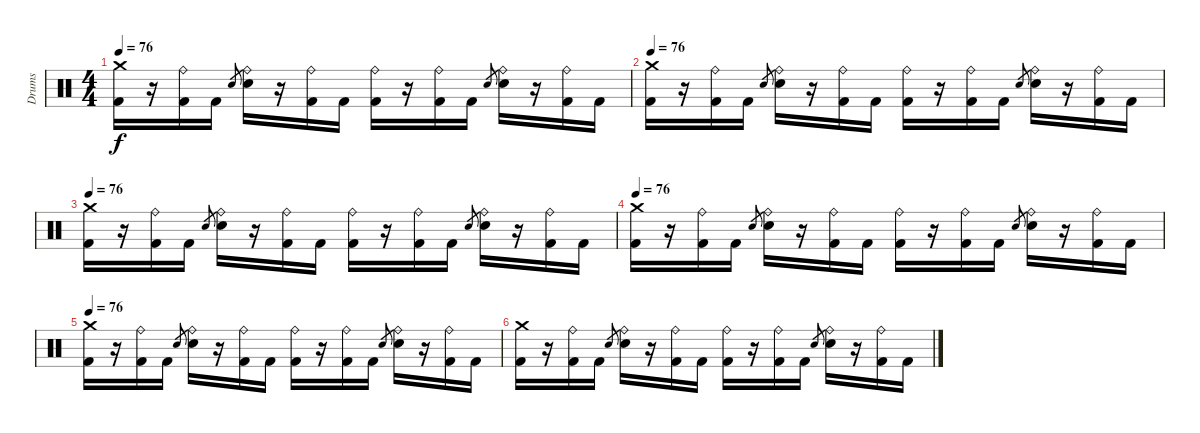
\track ("Drums" "Drums") {instrument percussion}
\staff {score}
\articulation defaults
\ts (4 4)
\tempo 76
\clef neutral
\ks c
("Crash medium (hit)" "Kick (hit) 2").16{dy f} r.16 ("Ride (bell)" "Kick (hit) 2").16 "Kick (hit) 2".16 "Electric Snare (hit)".8{gr} ("Ride (bell)" "Electric Snare (hit)").16 r.16 ("Ride (bell)" "Kick (hit) 2").16 "Kick (hit) 2".16 ("Ride (bell)" "Kick (hit) 2").16 r.16 ("Ride (bell)" "Kick (hit) 2").16 "Kick (hit) 2".16 "Electric Snare (hit)".8{gr} ("Ride (bell)" "Electric Snare (hit)").16 r.16 ("Ride (bell)" "Kick (hit) 2").16 "Kick (hit) 2".16 |
\tempo 76
("Crash medium (hit)" "Kick (hit) 2").16 r.16 ("Ride (bell)" "Kick (hit) 2").16 "Kick (hit) 2".16 "Electric Snare (hit)".8{gr} ("Ride (bell)" "Electric Snare (hit)").16 r.16 ("Ride (bell)" "Kick (hit) 2").16 "Kick (hit) 2".16 ("Ride (bell)" "Kick (hit) 2").16 r.16 ("Ride (bell)" "Kick (hit) 2").16 "Kick (hit) 2".16 "Electric Snare (hit)".8{gr} ("Ride (bell)" "Electric Snare (hit)").16 r.16 ("Ride (bell)" "Kick (hit) 2").16 "Kick (hit) 2".16 |
\tempo 76
("Crash medium (hit)" "Kick (hit) 2").16{volume 1} r.16 ("Ride (bell)" "Kick (hit) 2").16 "Kick (hit) 2".16 "Electric Snare (hit)".8{gr} ("Ride (bell)" "Electric Snare (hit)").16 r.16 ("Ride (bell)" "Kick (hit) 2").16 "Kick (hit) 2".16 ("Ride (bell)" "Kick (hit) 2").16 r.16 ("Ride (bell)" "Kick (hit) 2").16 "Kick (hit) 2".16 "Electric Snare (hit)".8{gr} ("Ride (bell)" "Electric Snare (hit)").16 r.16 ("Ride (bell)" "Kick (hit) 2").16 "Kick (hit) 2".16 |
\tempo 76
("Crash medium (hit)" "Kick (hit) 2").16 r.16 ("Ride (bell)" "Kick (hit) 2").16 "Kick (hit) 2".16 "Electric Snare (hit)".8{gr} ("Ride (bell)" "Electric Snare (hit)").16 r.16 ("Ride (bell)" "Kick (hit) 2").16 "Kick (hit) 2".16 ("Ride (bell)" "Kick (hit) 2").16 r.16 ("Ride (bell)" "Kick (hit) 2").16 "Kick (hit) 2".16 "Electric Snare (hit)".8{gr} ("Ride (bell)" "Electric Snare (hit)").16 r.16 ("Ride (bell)" "Kick (hit) 2").16 "Kick (hit) 2".16 |
\tempo 76
("Crash medium (hit)" "Kick (hit) 2").16 r.16 ("Ride (bell)" "Kick (hit) 2").16 "Kick (hit) 2".16 "Electric Snare (hit)".8{gr} ("Ride (bell)" "Electric Snare (hit)").16 r.16 ("Ride (bell)" "Kick (hit) 2").16 "Kick (hit) 2".16 ("Ride (bell)" "Kick (hit) 2").16 r.16 ("Ride (bell)" "Kick (hit) 2").16 "Kick (hit) 2".16 "Electric Snare (hit)".8{gr} ("Ride (bell)" "Electric Snare (hit)").16 r.16 ("Ride (bell)" "Kick (hit) 2").16 "Kick (hit) 2".16 |
("Crash medium (hit)" "Kick (hit) 2").16 r.16 ("Ride (bell)" "Kick (hit) 2").16 "Kick (hit) 2".16 "Electric Snare (hit)".8{gr} ("Ride (bell)" "Electric Snare (hit)").16 r.16 ("Ride (bell)" "Kick (hit) 2").16 "Kick (hit) 2".16 ("Ride (bell)" "Kick (hit) 2").16 r.16 ("Ride (bell)" "Kick (hit) 2").16 "Kick (hit) 2".16 "Electric Snare (hit)".8{gr} ("Ride (bell)" "Electric Snare (hit)").16 r.16 ("Ride (bell)" "Kick (hit) 2").16 "Kick (hit) 2".16
